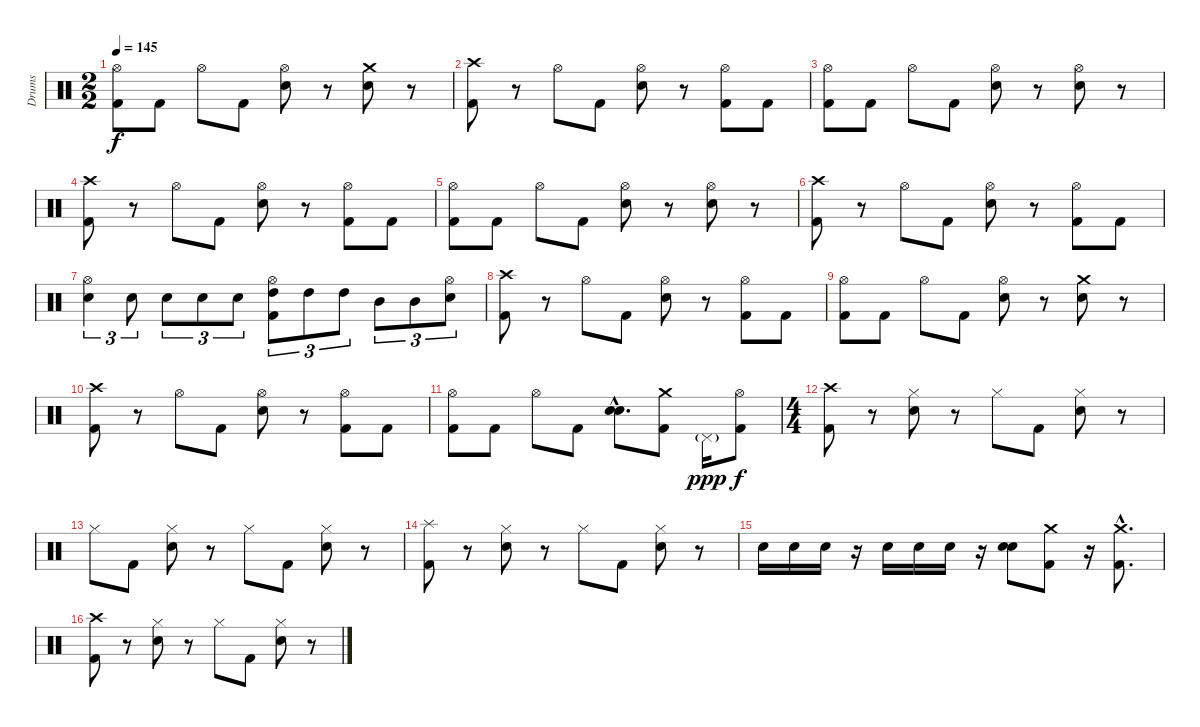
\track ("Drums" "Drums") {instrument percussion}
\staff {score}
\articulation defaults
\ts (2 2)
\tempo 145
\clef neutral
\ks c
("Hi-Hat (open)" "Kick (hit) 2").8{dy f} "Kick (hit) 2".8 "Hi-Hat (open)".8 "Kick (hit) 2".8 ("Hi-Hat (open)" "Snare (hit) 2").8 r.8 ("Crash medium (hit)" "Snare (hit) 2").8 r.8 |
("Crash high (hit)" "Kick (hit) 2").8 r.8 "Hi-Hat (open)".8 "Kick (hit) 2".8 ("Hi-Hat (open)" "Snare (hit) 2").8 r.8 ("Hi-Hat (open)" "Kick (hit) 2").8 "Kick (hit) 2".8 |
("Hi-Hat (open)" "Kick (hit) 2").8 "Kick (hit) 2".8 "Hi-Hat (open)".8 "Kick (hit) 2".8 ("Hi-Hat (open)" "Snare (hit) 2").8 r.8 ("Hi-Hat (open)" "Snare (hit) 2").8 r.8 |
("Crash high (hit)" "Kick (hit) 2").8 r.8 "Hi-Hat (open)".8 "Kick (hit) 2".8 ("Hi-Hat (open)" "Snare (hit) 2").8 r.8 ("Hi-Hat (open)" "Kick (hit) 2").8 "Kick (hit) 2".8 |
("Hi-Hat (open)" "Kick (hit) 2").8 "Kick (hit) 2".8 "Hi-Hat (open)".8 "Kick (hit) 2".8 ("Hi-Hat (open)" "Snare (hit) 2").8 r.8 ("Hi-Hat (open)" "Snare (hit) 2").8 r.8 |
("Crash high (hit)" "Kick (hit) 2").8 r.8 "Hi-Hat (open)".8 "Kick (hit) 2".8 ("Hi-Hat (open)" "Snare (hit) 2").8 r.8 ("Hi-Hat (open)" "Kick (hit) 2").8 "Kick (hit) 2".8 |
("Hi-Hat (open)" "Snare (hit) 2").4{tu (3 2)} "Snare (hit) 2".8{tu (3 2)} "Snare (hit) 2".8{tu (3 2)} "Snare (hit) 2".8{tu (3 2)} "Snare (hit) 2".8{tu (3 2)} ("Hi-Hat (open)" "High Tom (hit)" "Kick (hit) 2").8{tu (3 2)} "High Tom (hit)".8{tu (3 2)} "High Tom (hit)".8{tu (3 2)} "Mid Tom (hit)".8{tu (3 2)} "Mid Tom (hit)".8{tu (3 2)} ("Hi-Hat (open)" "Snare (hit) 2").8{tu (3 2)} |
("Crash high (hit)" "Kick (hit) 2").8 r.8 "Hi-Hat (open)".8 "Kick (hit) 2".8 ("Hi-Hat (open)" "Snare (hit) 2").8 r.8 ("Hi-Hat (open)" "Kick (hit) 2").8 "Kick (hit) 2".8 |
("Hi-Hat (open)" "Kick (hit) 2").8 "Kick (hit) 2".8 "Hi-Hat (open)".8 "Kick (hit) 2".8 ("Hi-Hat (open)" "Snare (hit) 2").8 r.8 ("Crash medium (hit)" "Snare (hit) 2").8 r.8 |
("Crash high (hit)" "Kick (hit) 2").8 r.8 "Hi-Hat (open)".8 "Kick (hit) 2".8 ("Hi-Hat (open)" "Snare (hit) 2").8 r.8 ("Hi-Hat (open)" "Kick (hit) 2").8 "Kick (hit) 2".8 |
("Hi-Hat (open)" "Kick (hit) 2").8 "Kick (hit) 2".8 "Hi-Hat (open)".8 "Kick (hit) 2".8 ("Snare (hit) 2"{hac} "Snare (hit) 2"{hac}).8{d bd 240} ("Crash medium (hit)" "Kick (hit) 2").8 "Pedal Hi-Hat (hit)"{g}.16{dy ppp} ("Hi-Hat (open)" "Kick (hit) 2").8{dy f} |
\ts (4 4)
("Crash high (hit)" "Kick (hit) 2").8 r.8 ("Hi-Hat (closed)" "Snare (hit) 2").8 r.8 "Hi-Hat (closed)".8 "Kick (hit) 2".8 ("Hi-Hat (closed)" "Snare (hit) 2").8 r.8 |
"Hi-Hat (closed)".8 "Kick (hit) 2".8 ("Hi-Hat (closed)" "Snare (hit) 2").8 r.8 "Hi-Hat (closed)".8 "Kick (hit) 2".8 ("Hi-Hat (closed)" "Snare (hit) 2").8 r.8 |
("Splash (hit)" "Kick (hit) 2").8 r.8 ("Hi-Hat (closed)" "Snare (hit) 2").8 r.8 "Hi-Hat (closed)".8 "Kick (hit) 2".8 ("Hi-Hat (closed)" "Snare (hit) 2").8 r.8 |
"Snare (hit) 2".16 "Snare (hit) 2".16 "Snare (hit) 2".16 r.16 "Snare (hit) 2".16 "Snare (hit) 2".16 "Snare (hit) 2".16 r.16 ("Snare (hit) 2" "Snare (hit) 2").8{bd 480} ("Crash medium (hit)" "Kick (hit) 2").8 r.16 ("Crash medium (hit)"{hac} "Kick (hit) 2"{hac}).8{d} |
("Crash high (hit)" "Kick (hit) 2").8 r.8 ("Hi-Hat (closed)" "Snare (hit) 2").8 r.8 "Hi-Hat (closed)".8 "Kick (hit) 2".8 ("Hi-Hat (closed)" "Snare (hit) 2").8 r.8
